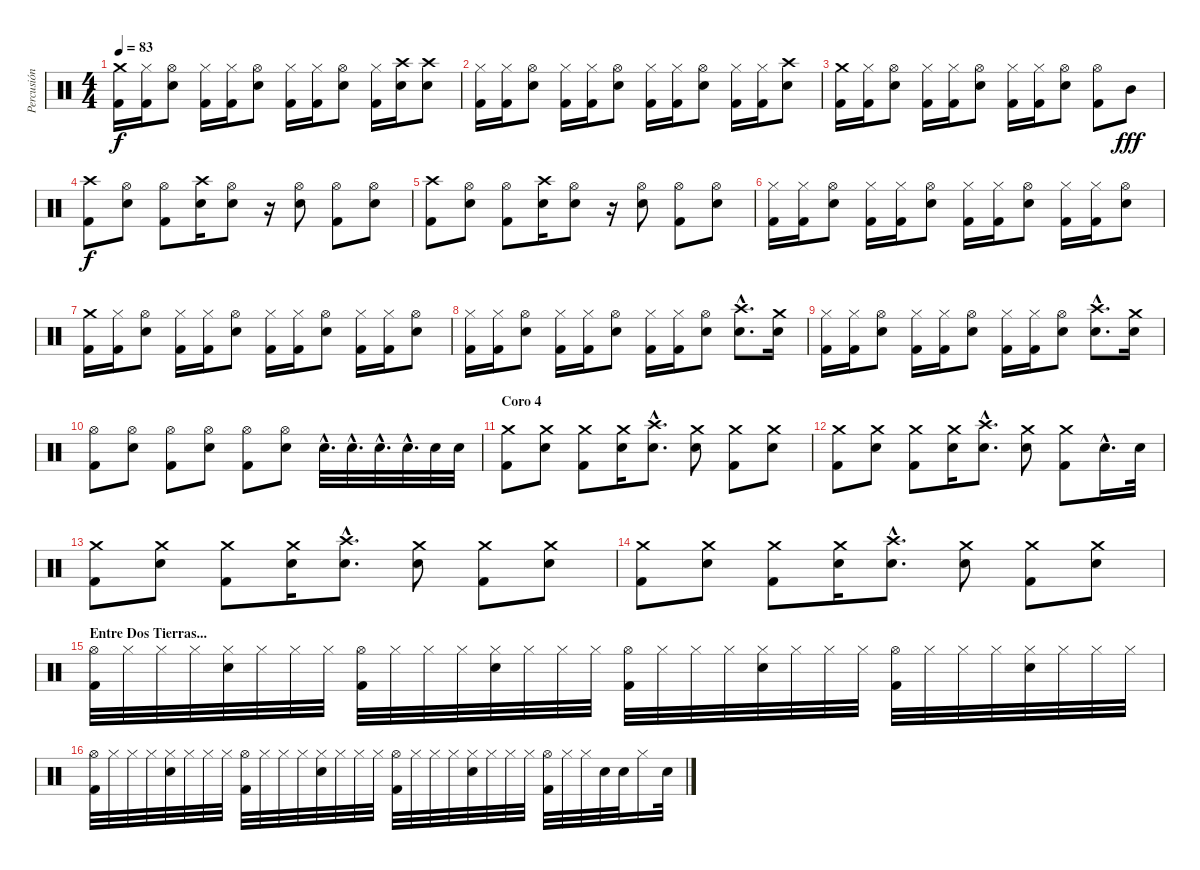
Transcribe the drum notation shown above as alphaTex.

\track ("Percusión" "Percusión") {instrument percussion}
\staff {score}
\articulation defaults
\ts (4 4)
\tempo 83
\clef neutral
\ks c
("Kick (hit) 2" "Crash medium (hit)").16{dy f} ("Kick (hit) 2" "Hi-Hat (closed)").16 ("Snare (hit) 2" "Hi-Hat (open)").8 ("Kick (hit) 2" "Hi-Hat (closed)").16 ("Kick (hit) 2" "Hi-Hat (closed)").16 ("Snare (hit) 2" "Hi-Hat (open)").8 ("Kick (hit) 2" "Hi-Hat (closed)").16 ("Kick (hit) 2" "Hi-Hat (closed)").16 ("Snare (hit) 2" "Hi-Hat (open)").8 ("Kick (hit) 2" "Hi-Hat (closed)").16 ("Snare (hit) 2" "Crash high (hit)").16 ("Snare (hit) 2" "Crash high (hit)").8 |
("Kick (hit) 2" "Hi-Hat (closed)").16 ("Kick (hit) 2" "Hi-Hat (closed)").16 ("Snare (hit) 2" "Hi-Hat (open)").8 ("Kick (hit) 2" "Hi-Hat (closed)").16 ("Kick (hit) 2" "Hi-Hat (closed)").16 ("Snare (hit) 2" "Hi-Hat (open)").8 ("Kick (hit) 2" "Hi-Hat (closed)").16 ("Kick (hit) 2" "Hi-Hat (closed)").16 ("Snare (hit) 2" "Hi-Hat (open)").8 ("Kick (hit) 2" "Hi-Hat (closed)").16 ("Kick (hit) 2" "Hi-Hat (closed)").16 ("Snare (hit) 2" "Crash high (hit)").8 |
("Kick (hit) 2" "Crash medium (hit)").16 ("Kick (hit) 2" "Hi-Hat (closed)").16 ("Snare (hit) 2" "Hi-Hat (open)").8 ("Kick (hit) 2" "Hi-Hat (closed)").16 ("Kick (hit) 2" "Hi-Hat (closed)").16 ("Snare (hit) 2" "Hi-Hat (open)").8 ("Kick (hit) 2" "Hi-Hat (closed)").16 ("Kick (hit) 2" "Hi-Hat (closed)").16 ("Snare (hit) 2" "Hi-Hat (open)").8 ("Kick (hit) 2" "Hi-Hat (open)").8 "Mid Tom (hit)".8{dy fff} |
("Kick (hit) 2" "Crash high (hit)").8{dy f} ("Snare (hit) 2" "Hi-Hat (open)").8 ("Kick (hit) 2" "Hi-Hat (open)").8 ("Snare (hit) 2" "Crash high (hit)").16 ("Snare (hit) 2" "Hi-Hat (open)").8 r.16 ("Snare (hit) 2" "Hi-Hat (open)").8 ("Kick (hit) 2" "Hi-Hat (open)").8 ("Snare (hit) 2" "Hi-Hat (open)").8 |
("Kick (hit) 2" "Crash high (hit)").8 ("Snare (hit) 2" "Hi-Hat (open)").8 ("Kick (hit) 2" "Hi-Hat (open)").8 ("Snare (hit) 2" "Crash high (hit)").16 ("Snare (hit) 2" "Hi-Hat (open)").8 r.16 ("Snare (hit) 2" "Hi-Hat (open)").8 ("Kick (hit) 2" "Hi-Hat (open)").8 ("Snare (hit) 2" "Hi-Hat (open)").8 |
("Kick (hit) 2" "Hi-Hat (closed)").16 ("Kick (hit) 2" "Hi-Hat (closed)").16 ("Snare (hit) 2" "Hi-Hat (open)").8 ("Kick (hit) 2" "Hi-Hat (closed)").16 ("Kick (hit) 2" "Hi-Hat (closed)").16 ("Snare (hit) 2" "Hi-Hat (open)").8 ("Kick (hit) 2" "Hi-Hat (closed)").16 ("Kick (hit) 2" "Hi-Hat (closed)").16 ("Snare (hit) 2" "Hi-Hat (open)").8 ("Kick (hit) 2" "Hi-Hat (closed)").16 ("Kick (hit) 2" "Hi-Hat (closed)").16 ("Snare (hit) 2" "Hi-Hat (open)").8 |
("Kick (hit) 2" "Crash medium (hit)").16 ("Kick (hit) 2" "Hi-Hat (closed)").16 ("Snare (hit) 2" "Hi-Hat (open)").8 ("Kick (hit) 2" "Hi-Hat (closed)").16 ("Kick (hit) 2" "Hi-Hat (closed)").16 ("Snare (hit) 2" "Hi-Hat (open)").8 ("Kick (hit) 2" "Hi-Hat (closed)").16 ("Kick (hit) 2" "Hi-Hat (closed)").16 ("Snare (hit) 2" "Hi-Hat (open)").8 ("Kick (hit) 2" "Hi-Hat (closed)").16 ("Kick (hit) 2" "Hi-Hat (closed)").16 ("Snare (hit) 2" "Hi-Hat (open)").8 |
("Kick (hit) 2" "Hi-Hat (closed)").16 ("Kick (hit) 2" "Hi-Hat (closed)").16 ("Snare (hit) 2" "Hi-Hat (open)").8 ("Kick (hit) 2" "Hi-Hat (closed)").16 ("Kick (hit) 2" "Hi-Hat (closed)").16 ("Snare (hit) 2" "Hi-Hat (open)").8 ("Kick (hit) 2" "Hi-Hat (closed)").16 ("Kick (hit) 2" "Hi-Hat (closed)").16 ("Snare (hit) 2" "Hi-Hat (open)").8 ("Snare (hit) 2"{hac} "Crash high (hit)"{hac}).8{d} ("Snare (hit) 2" "Crash medium (hit)").16 |
("Kick (hit) 2" "Hi-Hat (closed)").16 ("Kick (hit) 2" "Hi-Hat (closed)").16 ("Snare (hit) 2" "Hi-Hat (open)").8 ("Kick (hit) 2" "Hi-Hat (closed)").16 ("Kick (hit) 2" "Hi-Hat (closed)").16 ("Snare (hit) 2" "Hi-Hat (open)").8 ("Kick (hit) 2" "Hi-Hat (closed)").16 ("Kick (hit) 2" "Hi-Hat (closed)").16 ("Snare (hit) 2" "Hi-Hat (open)").8 ("Snare (hit) 2"{hac} "Crash high (hit)"{hac}).8{d} ("Snare (hit) 2" "Crash medium (hit)").16 |
("Kick (hit) 2" "Hi-Hat (open)").8 ("Snare (hit) 2" "Hi-Hat (open)").8 ("Kick (hit) 2" "Hi-Hat (open)").8 ("Snare (hit) 2" "Hi-Hat (open)").8 ("Kick (hit) 2" "Hi-Hat (open)").8 ("Snare (hit) 2" "Hi-Hat (open)").8 "Snare (hit) 2"{hac}.32{d} "Snare (hit) 2"{hac}.32{d} "Snare (hit) 2"{hac}.32{d} "Snare (hit) 2"{hac}.32{d} "Snare (hit) 2".32 "Snare (hit) 2".32 |
\section ("" "Coro 4")
("Kick (hit) 2" "Crash medium (hit)").8 ("Snare (hit) 2" "Crash medium (hit)").8 ("Kick (hit) 2" "Crash medium (hit)").8 ("Snare (hit) 2" "Crash medium (hit)").16 ("Snare (hit) 2"{hac} "Crash high (hit)"{hac}).8{d} ("Snare (hit) 2" "Crash medium (hit)").8 ("Kick (hit) 2" "Crash medium (hit)").8 ("Snare (hit) 2" "Crash medium (hit)").8 |
("Kick (hit) 2" "Crash medium (hit)").8 ("Snare (hit) 2" "Crash medium (hit)").8 ("Kick (hit) 2" "Crash medium (hit)").8 ("Snare (hit) 2" "Crash medium (hit)").16 ("Snare (hit) 2"{hac} "Crash high (hit)"{hac}).8{d} ("Snare (hit) 2" "Crash medium (hit)").8 ("Kick (hit) 2" "Crash medium (hit)").8 "Snare (hit) 2"{hac}.16{d} "Snare (hit) 2".32 |
("Kick (hit) 2" "Crash medium (hit)").8 ("Snare (hit) 2" "Crash medium (hit)").8 ("Kick (hit) 2" "Crash medium (hit)").8 ("Snare (hit) 2" "Crash medium (hit)").16 ("Snare (hit) 2"{hac} "Crash high (hit)"{hac}).8{d} ("Snare (hit) 2" "Crash medium (hit)").8 ("Kick (hit) 2" "Crash medium (hit)").8 ("Snare (hit) 2" "Crash medium (hit)").8 |
("Kick (hit) 2" "Crash medium (hit)").8 ("Snare (hit) 2" "Crash medium (hit)").8 ("Kick (hit) 2" "Crash medium (hit)").8 ("Snare (hit) 2" "Crash medium (hit)").16 ("Snare (hit) 2"{hac} "Crash high (hit)"{hac}).8{d} ("Snare (hit) 2" "Crash medium (hit)").8 ("Kick (hit) 2" "Crash medium (hit)").8 ("Snare (hit) 2" "Crash medium (hit)").8 |
\section ("" "Entre Dos Tierras...")
("Hi-Hat (open)" "Kick (hit) 2").32 "Hi-Hat (closed)".32 "Hi-Hat (closed)".32 "Hi-Hat (closed)".32 ("Hi-Hat (closed)" "Snare (hit) 2").32 "Hi-Hat (closed)".32 "Hi-Hat (closed)".32 "Hi-Hat (closed)".32 ("Hi-Hat (open)" "Kick (hit) 2").32 "Hi-Hat (closed)".32 "Hi-Hat (closed)".32 "Hi-Hat (closed)".32 ("Hi-Hat (closed)" "Snare (hit) 2").32 "Hi-Hat (closed)".32 "Hi-Hat (closed)".32 "Hi-Hat (closed)".32 ("Hi-Hat (open)" "Kick (hit) 2").32 "Hi-Hat (closed)".32 "Hi-Hat (closed)".32 "Hi-Hat (closed)".32 ("Hi-Hat (closed)" "Snare (hit) 2").32 "Hi-Hat (closed)".32 "Hi-Hat (closed)".32 "Hi-Hat (closed)".32 ("Hi-Hat (open)" "Kick (hit) 2").32 "Hi-Hat (closed)".32 "Hi-Hat (closed)".32 "Hi-Hat (closed)".32 ("Hi-Hat (closed)" "Snare (hit) 2").32 "Hi-Hat (closed)".32 "Hi-Hat (closed)".32 "Hi-Hat (closed)".32 |
("Hi-Hat (open)" "Kick (hit) 2").32 "Hi-Hat (closed)".32 "Hi-Hat (closed)".32 "Hi-Hat (closed)".32 ("Hi-Hat (closed)" "Snare (hit) 2").32 "Hi-Hat (closed)".32 "Hi-Hat (closed)".32 "Hi-Hat (closed)".32 ("Hi-Hat (open)" "Kick (hit) 2").32 "Hi-Hat (closed)".32 "Hi-Hat (closed)".32 "Hi-Hat (closed)".32 ("Hi-Hat (closed)" "Snare (hit) 2").32 "Hi-Hat (closed)".32 "Hi-Hat (closed)".32 "Hi-Hat (closed)".32 ("Hi-Hat (open)" "Kick (hit) 2").32 "Hi-Hat (closed)".32 "Hi-Hat (closed)".32 "Hi-Hat (closed)".32 ("Hi-Hat (closed)" "Snare (hit) 2").32 "Hi-Hat (closed)".32 "Hi-Hat (closed)".32 "Hi-Hat (closed)".32 ("Hi-Hat (open)" "Kick (hit) 2").32 "Hi-Hat (closed)".32 "Hi-Hat (closed)".32 "Snare (hit) 2".32 "Snare (hit) 2".32 "Hi-Hat (closed)".16 "Snare (hit) 2".32
